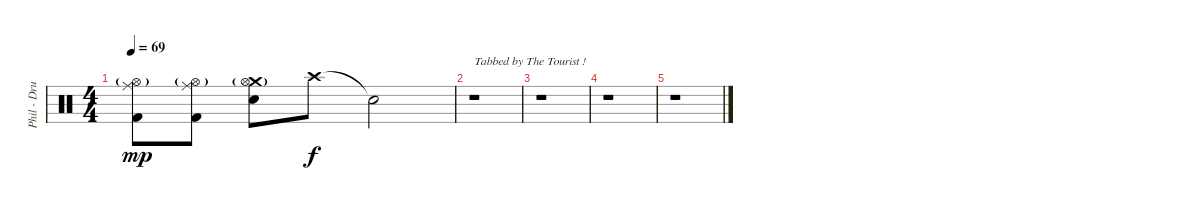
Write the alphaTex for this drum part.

\track ("Phil - Drums" "Phil - Dru") {instrument percussion}
\staff {score}
\articulation defaults
\ts (4 4)
\tempo 69
\clef neutral
\ks c
("Ride (middle)" "Kick (hit) 2" "Hi-Hat (open)"{g}).8{dy mp} ("Ride (middle)" "Kick (hit) 2" "Hi-Hat (open)"{g}).8 ("Crash medium (hit)" "Electric Snare (hit)" "Hi-Hat (open)"{g}).8 "Crash high (hit)".8{dy f} "Snare (hit)"{t}.2 |
r.1{txt "Tabbed by The Tourist !"} |
r.1 |
r.1 |
r.1
